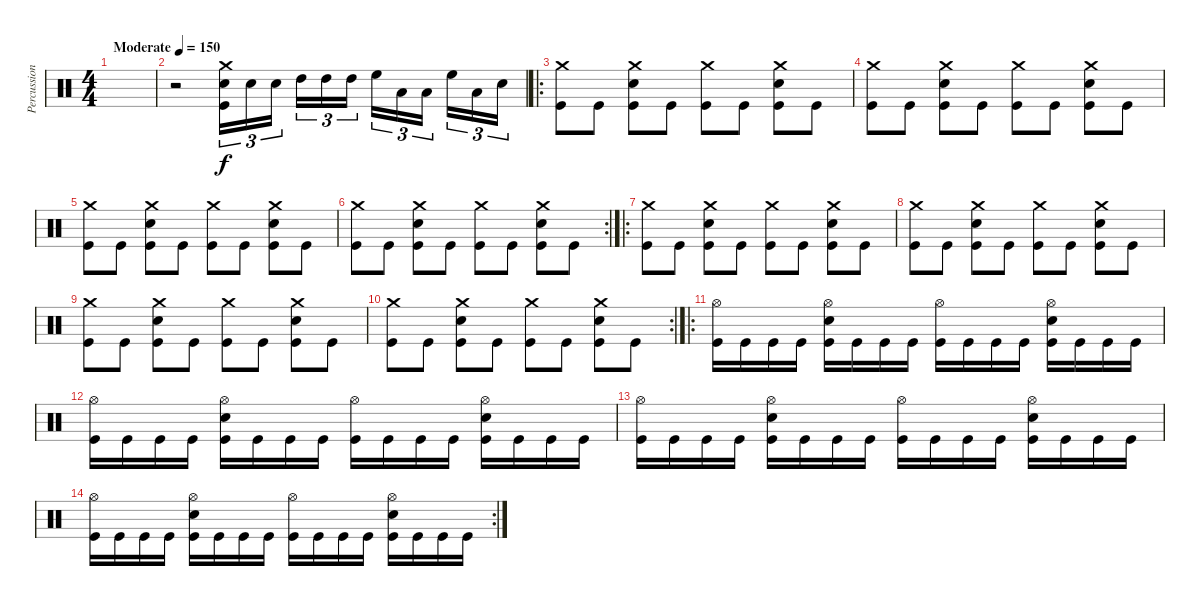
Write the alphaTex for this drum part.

\track ("Percussion" "Percussion") {instrument percussion}
\staff {score}
\articulation defaults
\ts (4 4)
\tempo (150 "Moderate")
\clef neutral
\ks c
|
r.2 ("Crash medium (hit)" "Snare (hit) 2" "Kick (hit)").16{tu (3 2)} "Snare (hit) 2".16{tu (3 2)} "Snare (hit) 2".16{tu (3 2) beam splitsecondary} "High Tom (hit)".16{tu (3 2)} "High Tom (hit)".16{tu (3 2)} "High Tom (hit)".16{tu (3 2)} "High Floor Tom (hit)".16{tu (3 2)} "Low Tom (hit)".16{tu (3 2)} "Low Floor Tom (hit)".16{tu (3 2) beam splitsecondary} "High Floor Tom (hit)".16{tu (3 2)} "Low Tom (hit)".16{tu (3 2)} "Snare (hit) 2".16{tu (3 2)} |
\ro
("Crash medium (hit)" "Kick (hit)").8 "Kick (hit)".8 ("Crash medium (hit)" "Snare (hit) 2" "Kick (hit)").8 "Kick (hit)".8 ("Crash medium (hit)" "Kick (hit)").8 "Kick (hit)".8 ("Crash medium (hit)" "Snare (hit) 2" "Kick (hit)").8 "Kick (hit)".8 |
("Crash medium (hit)" "Kick (hit)").8 "Kick (hit)".8 ("Crash medium (hit)" "Snare (hit) 2" "Kick (hit)").8 "Kick (hit)".8 ("Crash medium (hit)" "Kick (hit)").8 "Kick (hit)".8 ("Crash medium (hit)" "Snare (hit) 2" "Kick (hit)").8 "Kick (hit)".8 |
("Crash medium (hit)" "Kick (hit)").8 "Kick (hit)".8 ("Crash medium (hit)" "Snare (hit) 2" "Kick (hit)").8 "Kick (hit)".8 ("Crash medium (hit)" "Kick (hit)").8 "Kick (hit)".8 ("Crash medium (hit)" "Snare (hit) 2" "Kick (hit)").8 "Kick (hit)".8 |
\rc 2
("Crash medium (hit)" "Kick (hit)").8 "Kick (hit)".8 ("Crash medium (hit)" "Snare (hit) 2" "Kick (hit)").8 "Kick (hit)".8 ("Crash medium (hit)" "Kick (hit)").8 "Kick (hit)".8 ("Crash medium (hit)" "Snare (hit) 2" "Kick (hit)").8 "Kick (hit)".8 |
\ro
("Crash medium (hit)" "Kick (hit)").8 "Kick (hit)".8 ("Crash medium (hit)" "Snare (hit) 2" "Kick (hit)").8 "Kick (hit)".8 ("Crash medium (hit)" "Kick (hit)").8 "Kick (hit)".8 ("Crash medium (hit)" "Snare (hit) 2" "Kick (hit)").8 "Kick (hit)".8 |
("Crash medium (hit)" "Kick (hit)").8 "Kick (hit)".8 ("Crash medium (hit)" "Snare (hit) 2" "Kick (hit)").8 "Kick (hit)".8 ("Crash medium (hit)" "Kick (hit)").8 "Kick (hit)".8 ("Crash medium (hit)" "Snare (hit) 2" "Kick (hit)").8 "Kick (hit)".8 |
("Crash medium (hit)" "Kick (hit)").8 "Kick (hit)".8 ("Crash medium (hit)" "Snare (hit) 2" "Kick (hit)").8 "Kick (hit)".8 ("Crash medium (hit)" "Kick (hit)").8 "Kick (hit)".8 ("Crash medium (hit)" "Snare (hit) 2" "Kick (hit)").8 "Kick (hit)".8 |
\rc 2
("Crash medium (hit)" "Kick (hit)").8 "Kick (hit)".8 ("Crash medium (hit)" "Snare (hit) 2" "Kick (hit)").8 "Kick (hit)".8 ("Crash medium (hit)" "Kick (hit)").8 "Kick (hit)".8 ("Crash medium (hit)" "Snare (hit) 2" "Kick (hit)").8 "Kick (hit)".8 |
\ro
("Hi-Hat (open)" "Kick (hit)").16 "Kick (hit)".16 "Kick (hit)".16 "Kick (hit)".16 ("Hi-Hat (open)" "Snare (hit) 2" "Kick (hit)").16 "Kick (hit)".16 "Kick (hit)".16 "Kick (hit)".16 ("Hi-Hat (open)" "Kick (hit)").16 "Kick (hit)".16 "Kick (hit)".16 "Kick (hit)".16 ("Hi-Hat (open)" "Snare (hit) 2" "Kick (hit)").16 "Kick (hit)".16 "Kick (hit)".16 "Kick (hit)".16 |
("Hi-Hat (open)" "Kick (hit)").16 "Kick (hit)".16 "Kick (hit)".16 "Kick (hit)".16 ("Hi-Hat (open)" "Snare (hit) 2" "Kick (hit)").16 "Kick (hit)".16 "Kick (hit)".16 "Kick (hit)".16 ("Hi-Hat (open)" "Kick (hit)").16 "Kick (hit)".16 "Kick (hit)".16 "Kick (hit)".16 ("Hi-Hat (open)" "Snare (hit) 2" "Kick (hit)").16 "Kick (hit)".16 "Kick (hit)".16 "Kick (hit)".16 |
("Hi-Hat (open)" "Kick (hit)").16 "Kick (hit)".16 "Kick (hit)".16 "Kick (hit)".16 ("Hi-Hat (open)" "Snare (hit) 2" "Kick (hit)").16 "Kick (hit)".16 "Kick (hit)".16 "Kick (hit)".16 ("Hi-Hat (open)" "Kick (hit)").16 "Kick (hit)".16 "Kick (hit)".16 "Kick (hit)".16 ("Hi-Hat (open)" "Snare (hit) 2" "Kick (hit)").16 "Kick (hit)".16 "Kick (hit)".16 "Kick (hit)".16 |
\rc 2
("Hi-Hat (open)" "Kick (hit)").16 "Kick (hit)".16 "Kick (hit)".16 "Kick (hit)".16 ("Hi-Hat (open)" "Snare (hit) 2" "Kick (hit)").16 "Kick (hit)".16 "Kick (hit)".16 "Kick (hit)".16 ("Hi-Hat (open)" "Kick (hit)").16 "Kick (hit)".16 "Kick (hit)".16 "Kick (hit)".16 ("Hi-Hat (open)" "Snare (hit) 2" "Kick (hit)").16 "Kick (hit)".16 "Kick (hit)".16 "Kick (hit)".16
